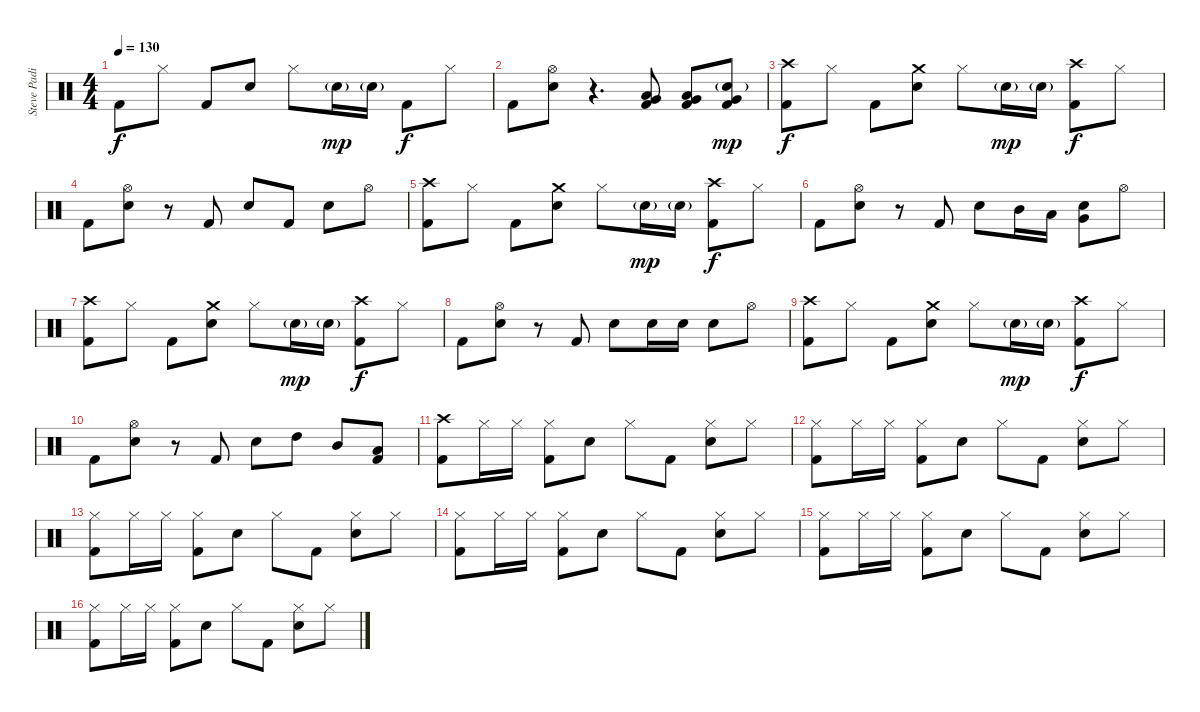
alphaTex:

\track ("Steve Padin" "Steve Padi") {instrument percussion}
\staff {score}
\articulation defaults
\ts (4 4)
\tempo 130
\clef neutral
\ks c "Kick (hit) 2".8{dy f} "Hi-Hat (closed)".8 "Kick (hit) 2".8 "Electric Snare (hit)".8 "Hi-Hat (closed)".8 "Electric Snare (hit)"{g}.16{dy mp} "Electric Snare (hit)"{g}.16 "Kick (hit) 2".8{dy f} "Hi-Hat (closed)".8
|
"Kick (hit) 2".8 ("Hi-Hat (open)" "Electric Snare (hit)").8{volume 8} r.4{d} ("Low Floor Tom (hit)" "Very Low Tom (hit)" "Kick (hit) 2").8{volume 16} ("Low Floor Tom (hit)" "Very Low Tom (hit)" "Kick (hit) 2").8{volume 16} ("Electric Snare (hit)"{g} "Very Low Tom (hit)" "Kick (hit) 2").8{dy mp} |
("Crash high (hit)" "Kick (hit) 2").8{dy f} "Hi-Hat (closed)".8 "Kick (hit) 2".8 ("Crash medium (hit)" "Electric Snare (hit)").8 "Hi-Hat (closed)".8 "Electric Snare (hit)"{g}.16{dy mp} "Electric Snare (hit)"{g}.16 ("Crash high (hit)" "Kick (hit) 2").8{dy f} "Hi-Hat (closed)".8 |
"Kick (hit) 2".8 ("Hi-Hat (open)" "Electric Snare (hit)").8 r.8 "Kick (hit) 2".8 "Electric Snare (hit)".8 "Kick (hit) 2".8 "Electric Snare (hit)".8 "Hi-Hat (open)".8 |
("Crash high (hit)" "Kick (hit) 2").8 "Hi-Hat (closed)".8 "Kick (hit) 2".8 ("Crash medium (hit)" "Electric Snare (hit)").8 "Hi-Hat (closed)".8 "Electric Snare (hit)"{g}.16{dy mp} "Electric Snare (hit)"{g}.16 ("Crash high (hit)" "Kick (hit) 2").8{dy f} "Hi-Hat (closed)".8 |
"Kick (hit) 2".8 ("Hi-Hat (open)" "Electric Snare (hit)").8 r.8 "Kick (hit) 2".8 "Electric Snare (hit)".8 "Mid Tom (hit)".16 "Low Tom (hit)".16 ("Very Low Tom (hit)" "Electric Snare (hit)").8 "Hi-Hat (open)".8 |
("Crash high (hit)" "Kick (hit) 2").8 "Hi-Hat (closed)".8 "Kick (hit) 2".8 ("Crash medium (hit)" "Electric Snare (hit)").8 "Hi-Hat (closed)".8 "Electric Snare (hit)"{g}.16{dy mp} "Electric Snare (hit)"{g}.16 ("Crash high (hit)" "Kick (hit) 2").8{dy f} "Hi-Hat (closed)".8 |
"Kick (hit) 2".8 ("Hi-Hat (open)" "Electric Snare (hit)").8 r.8 "Kick (hit) 2".8 "Electric Snare (hit)".8 "Electric Snare (hit)".16 "Electric Snare (hit)".16 "Electric Snare (hit)".8 "Hi-Hat (open)".8 |
("Crash high (hit)" "Kick (hit) 2").8 "Hi-Hat (closed)".8 "Kick (hit) 2".8 ("Crash medium (hit)" "Electric Snare (hit)").8 "Hi-Hat (closed)".8 "Electric Snare (hit)"{g}.16{dy mp} "Electric Snare (hit)"{g}.16 ("Crash high (hit)" "Kick (hit) 2").8{dy f} "Hi-Hat (closed)".8 |
"Kick (hit) 2".8 ("Hi-Hat (open)" "Electric Snare (hit)").8 r.8 "Kick (hit) 2".8 "Electric Snare (hit)".8 "High Tom (hit)".8 "Mid Tom (hit)".8 ("Low Tom (hit)" "Kick (hit) 2").8 |
("Crash high (hit)" "Kick (hit) 2").8 "Hi-Hat (closed)".16 "Hi-Hat (closed)".16 ("Hi-Hat (closed)" "Kick (hit) 2").8 "Electric Snare (hit)".8 "Hi-Hat (closed)".8 "Kick (hit) 2".8 ("Hi-Hat (closed)" "Electric Snare (hit)").8 "Hi-Hat (closed)".8 |
("Hi-Hat (closed)" "Kick (hit) 2").8 "Hi-Hat (closed)".16 "Hi-Hat (closed)".16 ("Hi-Hat (closed)" "Kick (hit) 2").8 "Electric Snare (hit)".8 "Hi-Hat (closed)".8 "Kick (hit) 2".8 ("Hi-Hat (closed)" "Electric Snare (hit)").8 "Hi-Hat (closed)".8 |
("Hi-Hat (closed)" "Kick (hit) 2").8 "Hi-Hat (closed)".16 "Hi-Hat (closed)".16 ("Hi-Hat (closed)" "Kick (hit) 2").8 "Electric Snare (hit)".8 "Hi-Hat (closed)".8 "Kick (hit) 2".8 ("Hi-Hat (closed)" "Electric Snare (hit)").8 "Hi-Hat (closed)".8 |
("Hi-Hat (closed)" "Kick (hit) 2").8 "Hi-Hat (closed)".16 "Hi-Hat (closed)".16 ("Hi-Hat (closed)" "Kick (hit) 2").8 "Electric Snare (hit)".8 "Hi-Hat (closed)".8 "Kick (hit) 2".8 ("Hi-Hat (closed)" "Electric Snare (hit)").8 "Hi-Hat (closed)".8 |
("Hi-Hat (closed)" "Kick (hit) 2").8 "Hi-Hat (closed)".16 "Hi-Hat (closed)".16 ("Hi-Hat (closed)" "Kick (hit) 2").8 "Electric Snare (hit)".8 "Hi-Hat (closed)".8 "Kick (hit) 2".8 ("Hi-Hat (closed)" "Electric Snare (hit)").8 "Hi-Hat (closed)".8 |
("Hi-Hat (closed)" "Kick (hit) 2").8 "Hi-Hat (closed)".16 "Hi-Hat (closed)".16 ("Hi-Hat (closed)" "Kick (hit) 2").8 "Electric Snare (hit)".8 "Hi-Hat (closed)".8 "Kick (hit) 2".8 ("Hi-Hat (closed)" "Electric Snare (hit)").8 "Hi-Hat (closed)".8
